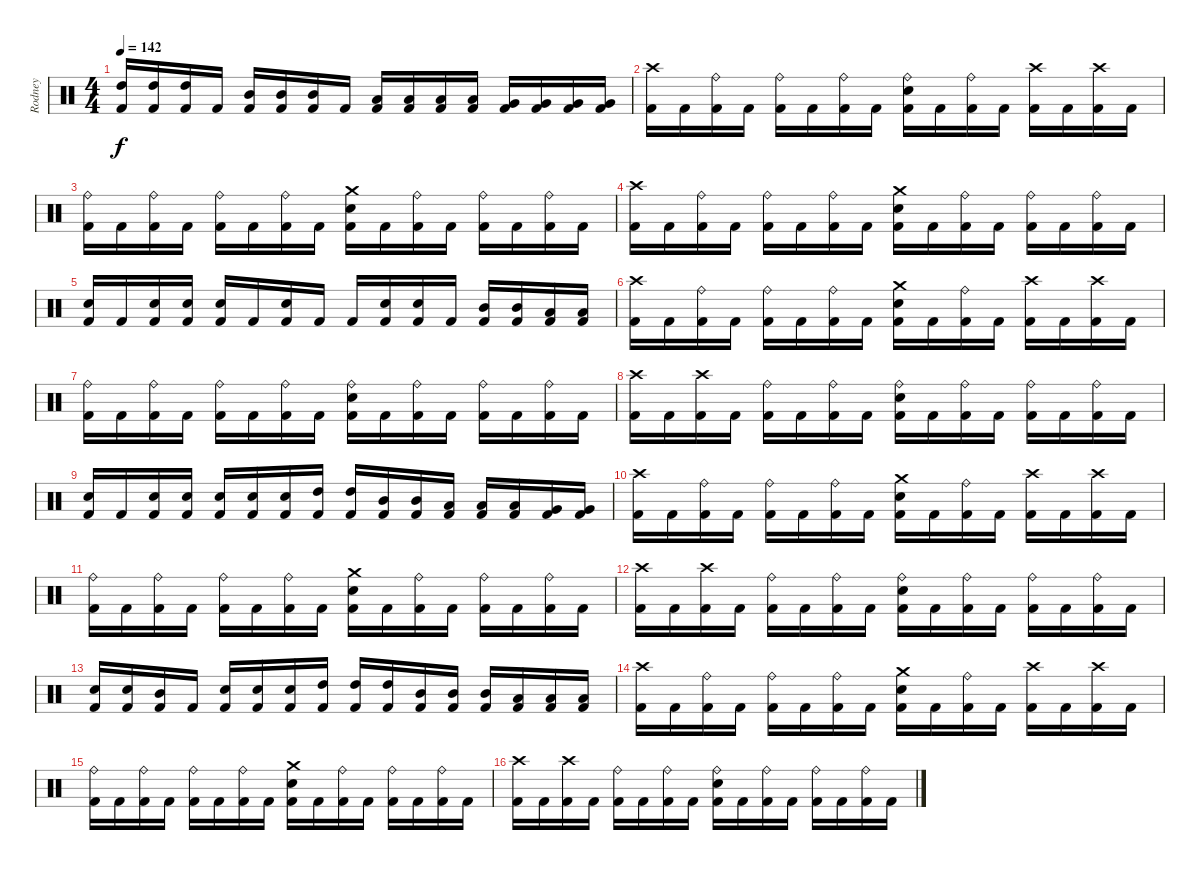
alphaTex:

\track ("Rodney" "Rodney") {instrument percussion}
\staff {score}
\articulation defaults
\ts (4 4)
\tempo 142
\clef neutral
\ks c
("High Tom (hit)" "Kick (hit) 2").16{dy f} ("High Tom (hit)" "Kick (hit) 2").16 ("High Tom (hit)" "Kick (hit) 2").16 "Kick (hit) 2".16 ("Mid Tom (hit)" "Kick (hit) 2").16 ("Mid Tom (hit)" "Kick (hit) 2").16 ("Mid Tom (hit)" "Kick (hit) 2").16 "Kick (hit) 2".16 ("Low Tom (hit)" "Kick (hit) 2").16 ("Low Tom (hit)" "Kick (hit) 2").16 ("Low Tom (hit)" "Kick (hit) 2").16 ("Low Tom (hit)" "Kick (hit) 2").16 ("Very Low Tom (hit)" "Kick (hit) 2").16 ("Very Low Tom (hit)" "Kick (hit) 2").16 ("Very Low Tom (hit)" "Kick (hit) 2").16 ("Very Low Tom (hit)" "Kick (hit) 2").16 |
("Crash high (hit)" "Kick (hit) 2").16 "Kick (hit) 2".16 ("Ride (bell)" "Kick (hit) 2").16 "Kick (hit) 2".16 ("Ride (bell)" "Kick (hit) 2").16 "Kick (hit) 2".16 ("Ride (bell)" "Kick (hit) 2").16 "Kick (hit) 2".16 ("Ride (bell)" "Snare (hit) 2" "Kick (hit) 2").16 "Kick (hit) 2".16 ("Ride (bell)" "Kick (hit) 2").16 "Kick (hit) 2".16 ("Crash high (hit)" "Kick (hit) 2").16 "Kick (hit) 2".16 ("Crash high (hit)" "Kick (hit) 2").16 "Kick (hit) 2".16 |
("Ride (bell)" "Kick (hit) 2").16 "Kick (hit) 2".16 ("Ride (bell)" "Kick (hit) 2").16 "Kick (hit) 2".16 ("Ride (bell)" "Kick (hit) 2").16 "Kick (hit) 2".16 ("Ride (bell)" "Kick (hit) 2").16 "Kick (hit) 2".16 ("Crash medium (hit)" "Snare (hit) 2" "Kick (hit) 2").16 "Kick (hit) 2".16 ("Ride (bell)" "Kick (hit) 2").16 "Kick (hit) 2".16 ("Ride (bell)" "Kick (hit) 2").16 "Kick (hit) 2".16 ("Ride (bell)" "Kick (hit) 2").16 "Kick (hit) 2".16 |
("Crash high (hit)" "Kick (hit) 2").16 "Kick (hit) 2".16 ("Ride (bell)" "Kick (hit) 2").16 "Kick (hit) 2".16 ("Ride (bell)" "Kick (hit) 2").16 "Kick (hit) 2".16 ("Ride (bell)" "Kick (hit) 2").16 "Kick (hit) 2".16 ("Crash medium (hit)" "Snare (hit) 2" "Kick (hit) 2").16 "Kick (hit) 2".16 ("Ride (bell)" "Kick (hit) 2").16 "Kick (hit) 2".16 ("Ride (bell)" "Kick (hit) 2").16 "Kick (hit) 2".16 ("Ride (bell)" "Kick (hit) 2").16 "Kick (hit) 2".16 |
("Snare (hit) 2" "Kick (hit) 2").16 "Kick (hit) 2".16 ("Snare (hit) 2" "Kick (hit) 2").16 ("Snare (hit) 2" "Kick (hit) 2").16 ("Snare (hit) 2" "Kick (hit) 2").16 "Kick (hit) 2".16 ("Snare (hit) 2" "Kick (hit) 2").16 "Kick (hit) 2".16 "Kick (hit) 2".16 ("Snare (hit) 2" "Kick (hit) 2").16 ("Snare (hit) 2" "Kick (hit) 2").16 "Kick (hit) 2".16 ("Mid Tom (hit)" "Kick (hit) 2").16 ("Mid Tom (hit)" "Kick (hit) 2").16 ("Low Tom (hit)" "Kick (hit) 2").16 ("Low Tom (hit)" "Kick (hit) 2").16 |
("Crash high (hit)" "Kick (hit) 2").16{volume 12} "Kick (hit) 2".16 ("Ride (bell)" "Kick (hit) 2").16 "Kick (hit) 2".16 ("Ride (bell)" "Kick (hit) 2").16 "Kick (hit) 2".16 ("Ride (bell)" "Kick (hit) 2").16 "Kick (hit) 2".16 ("Crash medium (hit)" "Snare (hit) 2" "Kick (hit) 2").16 "Kick (hit) 2".16 ("Ride (bell)" "Kick (hit) 2").16 "Kick (hit) 2".16 ("Crash high (hit)" "Kick (hit) 2").16 "Kick (hit) 2".16 ("Crash high (hit)" "Kick (hit) 2").16 "Kick (hit) 2".16 |
("Ride (bell)" "Kick (hit) 2").16 "Kick (hit) 2".16 ("Ride (bell)" "Kick (hit) 2").16 "Kick (hit) 2".16 ("Ride (bell)" "Kick (hit) 2").16 "Kick (hit) 2".16 ("Ride (bell)" "Kick (hit) 2").16 "Kick (hit) 2".16 ("Ride (bell)" "Snare (hit) 2" "Kick (hit) 2").16 "Kick (hit) 2".16 ("Ride (bell)" "Kick (hit) 2").16 "Kick (hit) 2".16 ("Ride (bell)" "Kick (hit) 2").16 "Kick (hit) 2".16 ("Ride (bell)" "Kick (hit) 2").16 "Kick (hit) 2".16 |
("Crash high (hit)" "Kick (hit) 2").16{volume 8} "Kick (hit) 2".16 ("Crash high (hit)" "Kick (hit) 2").16 "Kick (hit) 2".16 ("Ride (bell)" "Kick (hit) 2").16 "Kick (hit) 2".16 ("Ride (bell)" "Kick (hit) 2").16 "Kick (hit) 2".16 ("Ride (bell)" "Snare (hit) 2" "Kick (hit) 2").16 "Kick (hit) 2".16 ("Ride (bell)" "Kick (hit) 2").16 "Kick (hit) 2".16 ("Ride (bell)" "Kick (hit) 2").16 "Kick (hit) 2".16 ("Ride (bell)" "Kick (hit) 2").16 "Kick (hit) 2".16 |
("Snare (hit) 2" "Kick (hit) 2").16 "Kick (hit) 2".16 ("Snare (hit) 2" "Kick (hit) 2").16 ("Snare (hit) 2" "Kick (hit) 2").16 ("Snare (hit) 2" "Kick (hit) 2").16 ("Snare (hit) 2" "Kick (hit) 2").16 ("Snare (hit) 2" "Kick (hit) 2").16 ("High Tom (hit)" "Kick (hit) 2").16 ("High Tom (hit)" "Kick (hit) 2").16 ("Mid Tom (hit)" "Kick (hit) 2").16 ("Mid Tom (hit)" "Kick (hit) 2").16 ("Low Tom (hit)" "Kick (hit) 2").16 ("Low Tom (hit)" "Kick (hit) 2").16 ("Low Tom (hit)" "Kick (hit) 2").16 ("Very Low Tom (hit)" "Kick (hit) 2").16 ("Very Low Tom (hit)" "Kick (hit) 2").16 |
("Crash high (hit)" "Kick (hit) 2").16 "Kick (hit) 2".16 ("Ride (bell)" "Kick (hit) 2").16 "Kick (hit) 2".16 ("Ride (bell)" "Kick (hit) 2").16 "Kick (hit) 2".16 ("Ride (bell)" "Kick (hit) 2").16 "Kick (hit) 2".16 ("Crash medium (hit)" "Snare (hit) 2" "Kick (hit) 2").16 "Kick (hit) 2".16 ("Ride (bell)" "Kick (hit) 2").16 "Kick (hit) 2".16 ("Crash high (hit)" "Kick (hit) 2").16 "Kick (hit) 2".16 ("Crash high (hit)" "Kick (hit) 2").16 "Kick (hit) 2".16 |
("Ride (bell)" "Kick (hit) 2").16 "Kick (hit) 2".16 ("Ride (bell)" "Kick (hit) 2").16 "Kick (hit) 2".16 ("Ride (bell)" "Kick (hit) 2").16 "Kick (hit) 2".16 ("Ride (bell)" "Kick (hit) 2").16 "Kick (hit) 2".16 ("Crash medium (hit)" "Snare (hit) 2" "Kick (hit) 2").16 "Kick (hit) 2".16 ("Ride (bell)" "Kick (hit) 2").16 "Kick (hit) 2".16 ("Ride (bell)" "Kick (hit) 2").16 "Kick (hit) 2".16 ("Ride (bell)" "Kick (hit) 2").16 "Kick (hit) 2".16 |
("Crash high (hit)" "Kick (hit) 2").16{volume 6} "Kick (hit) 2".16 ("Crash high (hit)" "Kick (hit) 2").16 "Kick (hit) 2".16 ("Ride (bell)" "Kick (hit) 2").16 "Kick (hit) 2".16 ("Ride (bell)" "Kick (hit) 2").16 "Kick (hit) 2".16 ("Ride (bell)" "Snare (hit) 2" "Kick (hit) 2").16 "Kick (hit) 2".16 ("Ride (bell)" "Kick (hit) 2").16 "Kick (hit) 2".16 ("Ride (bell)" "Kick (hit) 2").16 "Kick (hit) 2".16 ("Ride (bell)" "Kick (hit) 2").16 "Kick (hit) 2".16 |
("Snare (hit) 2" "Kick (hit) 2").16 ("Snare (hit) 2" "Kick (hit) 2").16 ("Mid Tom (hit)" "Kick (hit) 2").16 "Kick (hit) 2".16 ("Snare (hit) 2" "Kick (hit) 2").16 ("Snare (hit) 2" "Kick (hit) 2").16 ("Snare (hit) 2" "Kick (hit) 2").16 ("High Tom (hit)" "Kick (hit) 2").16 ("High Tom (hit)" "Kick (hit) 2").16 ("High Tom (hit)" "Kick (hit) 2").16 ("Mid Tom (hit)" "Kick (hit) 2").16 ("Mid Tom (hit)" "Kick (hit) 2").16 ("Mid Tom (hit)" "Kick (hit) 2").16 ("Low Tom (hit)" "Kick (hit) 2").16 ("Low Tom (hit)" "Kick (hit) 2").16 ("Low Tom (hit)" "Kick (hit) 2").16 |
("Crash high (hit)" "Kick (hit) 2").16{volume 4} "Kick (hit) 2".16 ("Ride (bell)" "Kick (hit) 2").16 "Kick (hit) 2".16 ("Ride (bell)" "Kick (hit) 2").16 "Kick (hit) 2".16 ("Ride (bell)" "Kick (hit) 2").16 "Kick (hit) 2".16 ("Crash medium (hit)" "Snare (hit) 2" "Kick (hit) 2").16 "Kick (hit) 2".16 ("Ride (bell)" "Kick (hit) 2").16 "Kick (hit) 2".16 ("Crash high (hit)" "Kick (hit) 2").16 "Kick (hit) 2".16 ("Crash high (hit)" "Kick (hit) 2").16 "Kick (hit) 2".16 |
("Ride (bell)" "Kick (hit) 2").16 "Kick (hit) 2".16 ("Ride (bell)" "Kick (hit) 2").16 "Kick (hit) 2".16 ("Ride (bell)" "Kick (hit) 2").16 "Kick (hit) 2".16 ("Ride (bell)" "Kick (hit) 2").16 "Kick (hit) 2".16 ("Crash medium (hit)" "Snare (hit) 2" "Kick (hit) 2").16 "Kick (hit) 2".16 ("Ride (bell)" "Kick (hit) 2").16 "Kick (hit) 2".16 ("Ride (bell)" "Kick (hit) 2").16 "Kick (hit) 2".16 ("Ride (bell)" "Kick (hit) 2").16 "Kick (hit) 2".16 |
("Crash high (hit)" "Kick (hit) 2").16 "Kick (hit) 2".16 ("Crash high (hit)" "Kick (hit) 2").16 "Kick (hit) 2".16 ("Ride (bell)" "Kick (hit) 2").16 "Kick (hit) 2".16 ("Ride (bell)" "Kick (hit) 2").16 "Kick (hit) 2".16 ("Ride (bell)" "Snare (hit) 2" "Kick (hit) 2").16 "Kick (hit) 2".16 ("Ride (bell)" "Kick (hit) 2").16 "Kick (hit) 2".16 ("Ride (bell)" "Kick (hit) 2").16 "Kick (hit) 2".16 ("Ride (bell)" "Kick (hit) 2").16 "Kick (hit) 2".16
